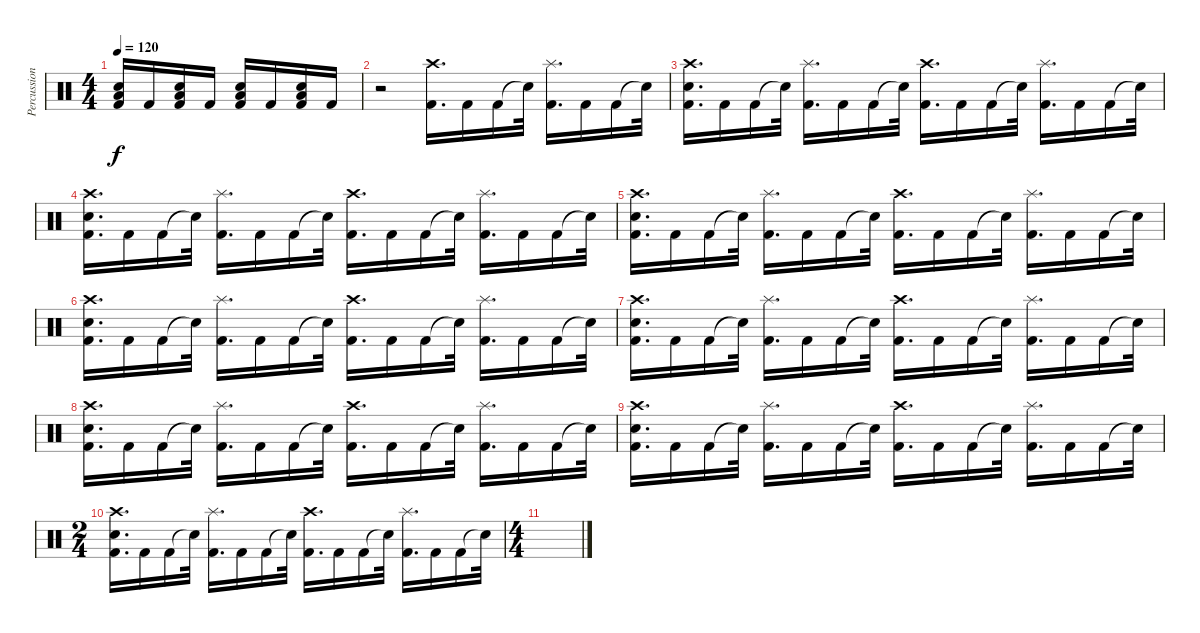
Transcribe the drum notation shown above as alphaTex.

\track ("Percussion" "Percussion") {instrument percussion}
\staff {score}
\articulation defaults
\ts (4 4)
\tempo 120
\clef neutral
\ks c
("Kick (hit) 2" "Snare (hit) 2" "Low Floor Tom (hit)").16{dy f} "Kick (hit) 2".16 ("Kick (hit) 2" "Snare (hit) 2" "Low Floor Tom (hit)").16 "Kick (hit) 2".16 ("Kick (hit) 2" "Snare (hit) 2" "Low Floor Tom (hit)").16 "Kick (hit) 2".16 ("Kick (hit) 2" "Snare (hit) 2" "Low Floor Tom (hit)").16 "Kick (hit) 2".16 |
r.2 ("Kick (hit) 2" "Crash high (hit)").16{d} "Kick (hit) 2".16 "Kick (hit) 2".16 "Snare (hit)"{t}.32 ("Kick (hit) 2" "Splash (hit)").16{d} "Kick (hit) 2".16 "Kick (hit) 2".16 "Snare (hit)"{t}.32 |
("Kick (hit) 2" "Snare (hit) 2" "Crash high (hit)").16{d} "Kick (hit) 2".16 "Kick (hit) 2".16 "Snare (hit)"{t}.32 ("Kick (hit) 2" "Splash (hit)").16{d} "Kick (hit) 2".16 "Kick (hit) 2".16 "Snare (hit)"{t}.32 ("Kick (hit) 2" "Crash high (hit)").16{d} "Kick (hit) 2".16 "Kick (hit) 2".16 "Snare (hit)"{t}.32 ("Kick (hit) 2" "Splash (hit)").16{d} "Kick (hit) 2".16 "Kick (hit) 2".16 "Snare (hit)"{t}.32 |
("Kick (hit) 2" "Snare (hit) 2" "Crash high (hit)").16{d} "Kick (hit) 2".16 "Kick (hit) 2".16 "Snare (hit)"{t}.32 ("Kick (hit) 2" "Splash (hit)").16{d} "Kick (hit) 2".16 "Kick (hit) 2".16 "Snare (hit)"{t}.32 ("Kick (hit) 2" "Crash high (hit)").16{d} "Kick (hit) 2".16 "Kick (hit) 2".16 "Snare (hit)"{t}.32 ("Kick (hit) 2" "Splash (hit)").16{d} "Kick (hit) 2".16 "Kick (hit) 2".16 "Snare (hit)"{t}.32 |
("Kick (hit) 2" "Snare (hit) 2" "Crash high (hit)").16{d} "Kick (hit) 2".16 "Kick (hit) 2".16 "Snare (hit)"{t}.32 ("Kick (hit) 2" "Splash (hit)").16{d} "Kick (hit) 2".16 "Kick (hit) 2".16 "Snare (hit)"{t}.32 ("Kick (hit) 2" "Crash high (hit)").16{d} "Kick (hit) 2".16 "Kick (hit) 2".16 "Snare (hit)"{t}.32 ("Kick (hit) 2" "Splash (hit)").16{d} "Kick (hit) 2".16 "Kick (hit) 2".16 "Snare (hit)"{t}.32 |
("Kick (hit) 2" "Snare (hit) 2" "Crash high (hit)").16{d} "Kick (hit) 2".16 "Kick (hit) 2".16 "Snare (hit)"{t}.32 ("Kick (hit) 2" "Splash (hit)").16{d} "Kick (hit) 2".16 "Kick (hit) 2".16 "Snare (hit)"{t}.32 ("Kick (hit) 2" "Crash high (hit)").16{d} "Kick (hit) 2".16 "Kick (hit) 2".16 "Snare (hit)"{t}.32 ("Kick (hit) 2" "Splash (hit)").16{d} "Kick (hit) 2".16 "Kick (hit) 2".16 "Snare (hit)"{t}.32 |
("Kick (hit) 2" "Snare (hit) 2" "Crash high (hit)").16{d} "Kick (hit) 2".16 "Kick (hit) 2".16 "Snare (hit)"{t}.32 ("Kick (hit) 2" "Splash (hit)").16{d} "Kick (hit) 2".16 "Kick (hit) 2".16 "Snare (hit)"{t}.32 ("Kick (hit) 2" "Crash high (hit)").16{d} "Kick (hit) 2".16 "Kick (hit) 2".16 "Snare (hit)"{t}.32 ("Kick (hit) 2" "Splash (hit)").16{d} "Kick (hit) 2".16 "Kick (hit) 2".16 "Snare (hit)"{t}.32 |
("Kick (hit) 2" "Snare (hit) 2" "Crash high (hit)").16{d} "Kick (hit) 2".16 "Kick (hit) 2".16 "Snare (hit)"{t}.32 ("Kick (hit) 2" "Splash (hit)").16{d} "Kick (hit) 2".16 "Kick (hit) 2".16 "Snare (hit)"{t}.32 ("Kick (hit) 2" "Crash high (hit)").16{d} "Kick (hit) 2".16 "Kick (hit) 2".16 "Snare (hit)"{t}.32 ("Kick (hit) 2" "Splash (hit)").16{d} "Kick (hit) 2".16 "Kick (hit) 2".16 "Snare (hit)"{t}.32 |
("Kick (hit) 2" "Snare (hit) 2" "Crash high (hit)").16{d} "Kick (hit) 2".16 "Kick (hit) 2".16 "Snare (hit)"{t}.32 ("Kick (hit) 2" "Splash (hit)").16{d} "Kick (hit) 2".16 "Kick (hit) 2".16 "Snare (hit)"{t}.32 ("Kick (hit) 2" "Crash high (hit)").16{d} "Kick (hit) 2".16 "Kick (hit) 2".16 "Snare (hit)"{t}.32 ("Kick (hit) 2" "Splash (hit)").16{d} "Kick (hit) 2".16 "Kick (hit) 2".16 "Snare (hit)"{t}.32 |
\ts (2 4)
("Kick (hit) 2" "Snare (hit) 2" "Crash high (hit)").16{d} "Kick (hit) 2".16 "Kick (hit) 2".16 "Snare (hit)"{t}.32 ("Kick (hit) 2" "Splash (hit)").16{d} "Kick (hit) 2".16 "Kick (hit) 2".16 "Snare (hit)"{t}.32 ("Kick (hit) 2" "Crash high (hit)").16{d} "Kick (hit) 2".16 "Kick (hit) 2".16 "Snare (hit)"{t}.32 ("Kick (hit) 2" "Splash (hit)").16{d} "Kick (hit) 2".16 "Kick (hit) 2".16 "Snare (hit)"{t}.32 |
\ts (4 4)
